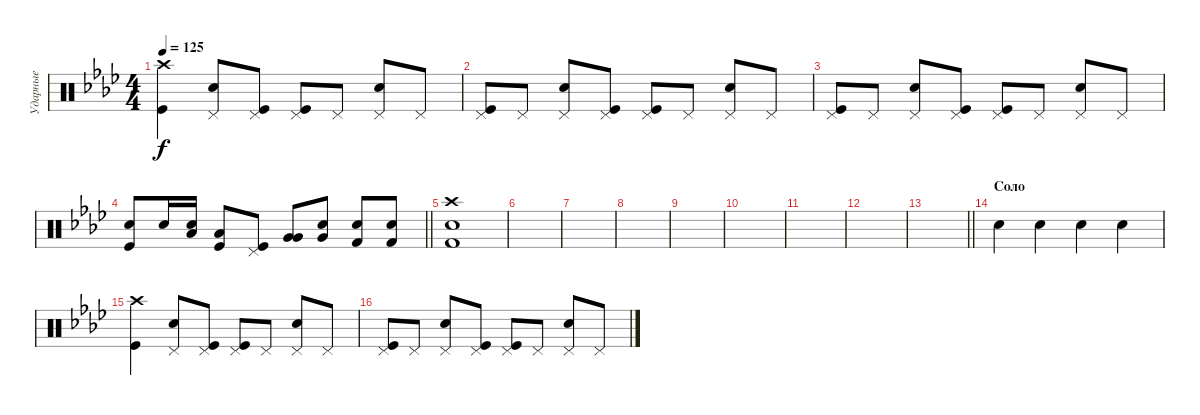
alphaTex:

\track ("Ударные" "Ударные") {solo instrument percussion}
\staff {score}
\articulation defaults
\ts (4 4)
\tempo 125
\clef neutral
\ks fminor
("Crash high (hit)" "Kick (hit)").4{dy f} ("Pedal Hi-Hat (hit)" "Electric Snare (hit)").8 ("Pedal Hi-Hat (hit)" "Kick (hit)").8 ("Pedal Hi-Hat (hit)" "Kick (hit)").8 "Pedal Hi-Hat (hit)".8 ("Pedal Hi-Hat (hit)" "Electric Snare (hit)").8 "Pedal Hi-Hat (hit)".8 |
("Pedal Hi-Hat (hit)" "Kick (hit)").8 "Pedal Hi-Hat (hit)".8 ("Pedal Hi-Hat (hit)" "Electric Snare (hit)").8 ("Pedal Hi-Hat (hit)" "Kick (hit)").8 ("Pedal Hi-Hat (hit)" "Kick (hit)").8 "Pedal Hi-Hat (hit)".8 ("Pedal Hi-Hat (hit)" "Electric Snare (hit)").8 "Pedal Hi-Hat (hit)".8 |
("Pedal Hi-Hat (hit)" "Kick (hit)").8 "Pedal Hi-Hat (hit)".8 ("Pedal Hi-Hat (hit)" "Electric Snare (hit)").8 ("Pedal Hi-Hat (hit)" "Kick (hit)").8 ("Pedal Hi-Hat (hit)" "Kick (hit)").8 "Pedal Hi-Hat (hit)".8 ("Pedal Hi-Hat (hit)" "Electric Snare (hit)").8 "Pedal Hi-Hat (hit)".8 |
\barLineRight lightlight
("Snare (hit) 2" "Kick (hit)").8 "Snare (hit) 2".16 ("Low Floor Tom (hit)" "Electric Snare (hit)").16 ("Low Floor Tom (hit)" "Kick (hit)").8 ("Pedal Hi-Hat (hit)" "Kick (hit)").8 ("Very Low Tom (hit)" "Very Low Tom (hit)").8 ("Very Low Tom (hit)" "Electric Snare (hit)").8 ("Snare (hit) 2" "Kick (hit) 2").8 ("Snare (hit) 2" "Kick (hit) 2").8 |
("Crash high (hit)" "Electric Snare (hit)" "Kick (hit) 2").1 |
|
|
|
|
|
|
|
\barLineRight lightlight
|
\section ("" "Соло")
"Electric Snare (hit)".4 "Electric Snare (hit)".4 "Electric Snare (hit)".4 "Electric Snare (hit)".4 |
("Crash high (hit)" "Kick (hit)").4 ("Pedal Hi-Hat (hit)" "Electric Snare (hit)").8 ("Pedal Hi-Hat (hit)" "Kick (hit)").8 ("Pedal Hi-Hat (hit)" "Kick (hit)").8 "Pedal Hi-Hat (hit)".8 ("Pedal Hi-Hat (hit)" "Electric Snare (hit)").8 "Pedal Hi-Hat (hit)".8 |
("Pedal Hi-Hat (hit)" "Kick (hit)").8 "Pedal Hi-Hat (hit)".8 ("Pedal Hi-Hat (hit)" "Electric Snare (hit)").8 ("Pedal Hi-Hat (hit)" "Kick (hit)").8 ("Pedal Hi-Hat (hit)" "Kick (hit)").8 "Pedal Hi-Hat (hit)".8 ("Pedal Hi-Hat (hit)" "Electric Snare (hit)").8 "Pedal Hi-Hat (hit)".8
